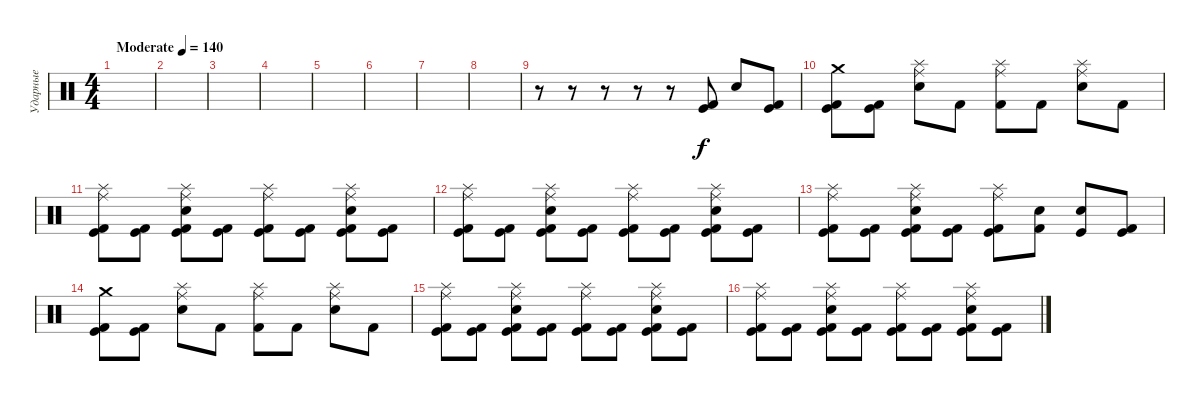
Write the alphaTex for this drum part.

\track ("Ударные" "Ударные") {instrument percussion}
\staff {score}
\articulation defaults
\ts (4 4)
\tempo (140 "Moderate")
\clef neutral
\ks c
|
|
|
|
|
|
|
|
r.8 r.8 r.8 r.8 r.8 ("Kick (hit)" "Kick (hit) 2").8 "Electric Snare (hit)".8 ("Kick (hit)" "Kick (hit) 2").8 |
("Crash medium (hit)" "Kick (hit) 2" "Kick (hit)").8 ("Kick (hit)" "Kick (hit) 2").8 ("Ride (middle)" "Splash (hit)" "Electric Snare (hit)").8 "Kick (hit) 2".8 ("Ride (middle)" "Splash (hit)" "Kick (hit) 2").8 "Kick (hit) 2".8 ("Ride (middle)" "Splash (hit)" "Electric Snare (hit)").8 "Kick (hit) 2".8 |
("Ride (middle)" "Splash (hit)" "Kick (hit) 2" "Kick (hit)").8 ("Kick (hit)" "Kick (hit) 2").8 ("Ride (middle)" "Splash (hit)" "Kick (hit) 2" "Kick (hit)" "Electric Snare (hit)").8 ("Kick (hit)" "Kick (hit) 2").8 ("Ride (middle)" "Splash (hit)" "Kick (hit) 2" "Kick (hit)").8 ("Kick (hit)" "Kick (hit) 2").8 ("Ride (middle)" "Splash (hit)" "Kick (hit) 2" "Kick (hit)" "Electric Snare (hit)").8 ("Kick (hit)" "Kick (hit) 2").8 |
("Ride (middle)" "Splash (hit)" "Kick (hit) 2" "Kick (hit)").8 ("Kick (hit)" "Kick (hit) 2").8 ("Ride (middle)" "Splash (hit)" "Kick (hit) 2" "Kick (hit)" "Electric Snare (hit)").8 ("Kick (hit)" "Kick (hit) 2").8 ("Ride (middle)" "Splash (hit)" "Kick (hit) 2" "Kick (hit)").8 ("Kick (hit)" "Kick (hit) 2").8 ("Ride (middle)" "Splash (hit)" "Kick (hit) 2" "Kick (hit)" "Electric Snare (hit)").8 ("Kick (hit)" "Kick (hit) 2").8 |
("Ride (middle)" "Splash (hit)" "Kick (hit) 2" "Kick (hit)").8 ("Kick (hit)" "Kick (hit) 2").8 ("Ride (middle)" "Splash (hit)" "Kick (hit) 2" "Kick (hit)" "Electric Snare (hit)").8 ("Kick (hit)" "Kick (hit) 2").8 ("Ride (middle)" "Splash (hit)" "Kick (hit) 2" "Kick (hit)").8 ("Electric Snare (hit)" "Kick (hit) 2").8 ("Electric Snare (hit)" "Kick (hit)").8 ("Kick (hit)" "Kick (hit) 2").8 |
("Crash medium (hit)" "Kick (hit) 2" "Kick (hit)").8 ("Kick (hit)" "Kick (hit) 2").8 ("Ride (middle)" "Splash (hit)" "Electric Snare (hit)").8 "Kick (hit) 2".8 ("Ride (middle)" "Splash (hit)" "Kick (hit) 2").8 "Kick (hit) 2".8 ("Ride (middle)" "Splash (hit)" "Electric Snare (hit)").8 "Kick (hit) 2".8 |
("Ride (middle)" "Splash (hit)" "Kick (hit) 2" "Kick (hit)").8 ("Kick (hit)" "Kick (hit) 2").8 ("Ride (middle)" "Splash (hit)" "Kick (hit) 2" "Kick (hit)" "Electric Snare (hit)").8 ("Kick (hit)" "Kick (hit) 2").8 ("Ride (middle)" "Splash (hit)" "Kick (hit) 2" "Kick (hit)").8 ("Kick (hit)" "Kick (hit) 2").8 ("Ride (middle)" "Splash (hit)" "Kick (hit) 2" "Kick (hit)" "Electric Snare (hit)").8 ("Kick (hit)" "Kick (hit) 2").8 |
("Ride (middle)" "Splash (hit)" "Kick (hit) 2" "Kick (hit)").8 ("Kick (hit)" "Kick (hit) 2").8 ("Ride (middle)" "Splash (hit)" "Kick (hit) 2" "Kick (hit)" "Electric Snare (hit)").8 ("Kick (hit)" "Kick (hit) 2").8 ("Ride (middle)" "Splash (hit)" "Kick (hit) 2" "Kick (hit)").8 ("Kick (hit)" "Kick (hit) 2").8 ("Ride (middle)" "Splash (hit)" "Kick (hit) 2" "Kick (hit)" "Electric Snare (hit)").8 ("Kick (hit)" "Kick (hit) 2").8
